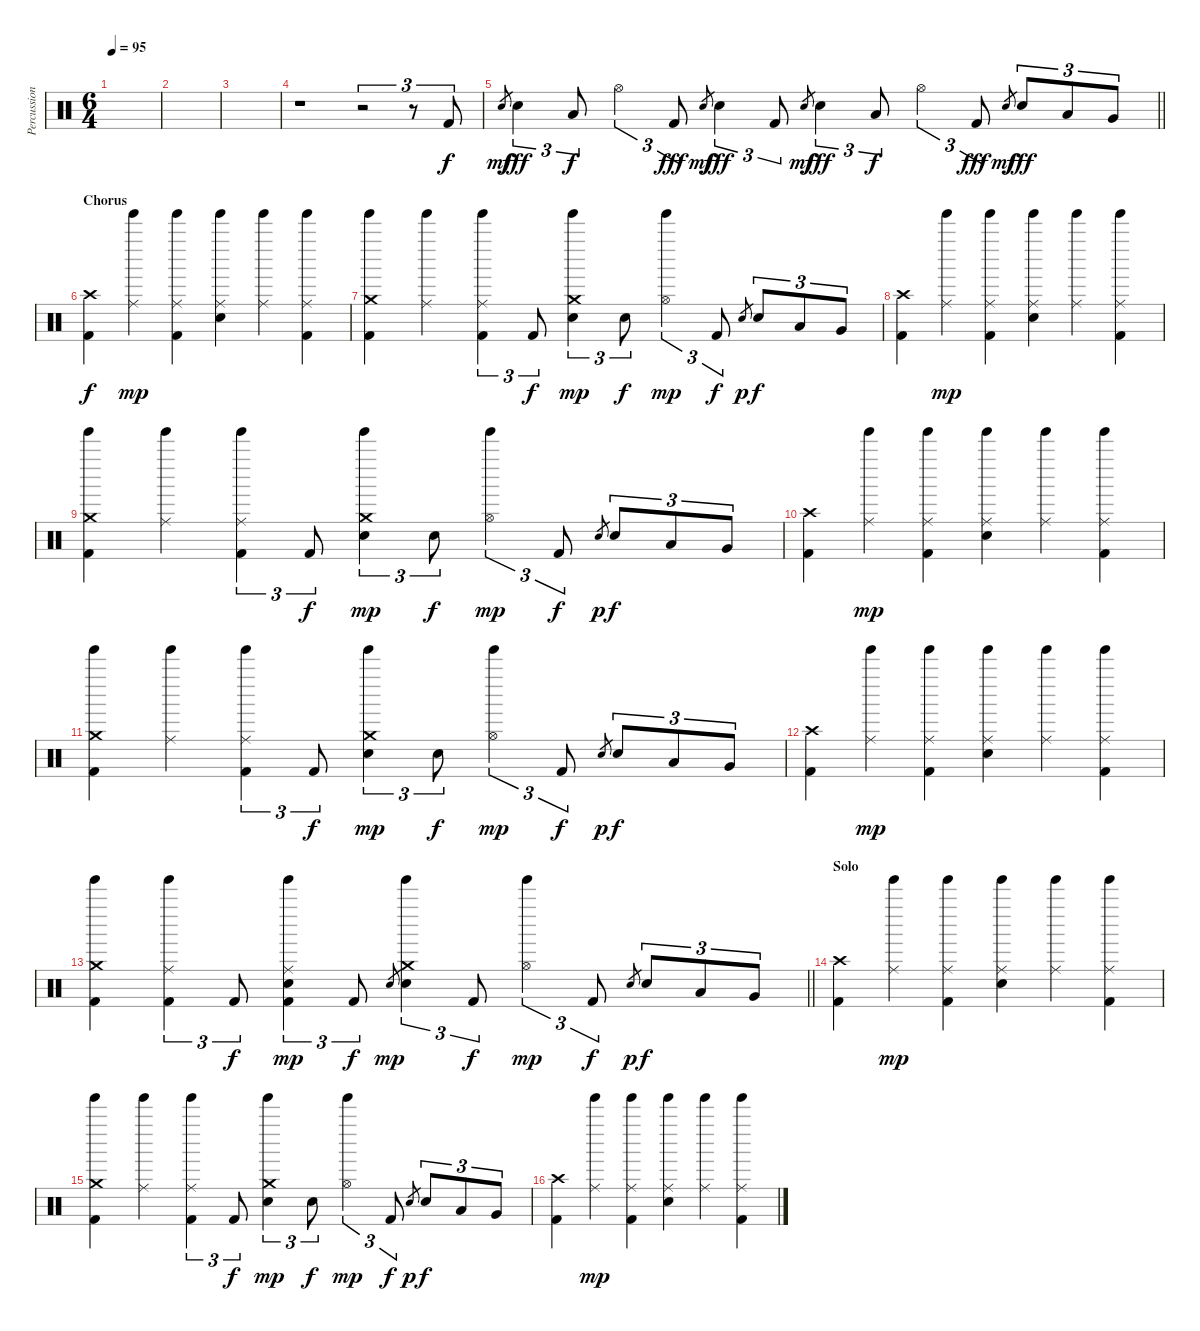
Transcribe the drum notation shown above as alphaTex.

\track ("Percussion" "Percussion") {instrument percussion}
\staff {score}
\articulation defaults
\ts (6 4)
\tempo 95
\clef neutral
\ks c
|
|
|
r.1 r.2{tu (3 2)} r.8{tu (3 2)} "Kick (hit) 2".8{tu (3 2)} |
\barLineRight lightlight "Snare (hit) 2".8{gr dy mf} "Snare (hit) 2".4{tu (3 2) dy fff} "Low Tom (hit)".8{tu (3 2) dy f} "Hi-Hat (open)".4{tu (3 2)} "Kick (hit) 2".8{tu (3 2) dy fff} "Snare (hit) 2".8{gr dy mf} "Snare (hit) 2".4{tu (3 2) dy fff} "Kick (hit) 2".8{tu (3 2)} "Snare (hit) 2".8{gr dy mf} "Snare (hit) 2".4{tu (3 2) dy fff} "Low Tom (hit)".8{tu (3 2) dy f} "Hi-Hat (open)".4{tu (3 2)} "Kick (hit) 2".8{tu (3 2) dy fff} "Snare (hit) 2".8{gr dy mf} "Snare (hit) 2".8{tu (3 2) dy fff} "Low Tom (hit)".8{tu (3 2)} "Very Low Tom (hit)".8{tu (3 2)}
|
\section ("" "Chorus")
("Crash high (hit)" "Kick (hit) 2").4{dy f} ("Ride (middle)" "Tinkle Bell (hit)").4{dy mp} ("Ride (middle)" "Tinkle Bell (hit)" "Kick (hit) 2").4 ("Ride (middle)" "Snare (hit) 2" "Tinkle Bell (hit)").4 ("Ride (middle)" "Tinkle Bell (hit)").4 ("Ride (middle)" "Tinkle Bell (hit)" "Kick (hit) 2").4 |
("Crash medium (hit)" "Kick (hit) 2" "Tinkle Bell (hit)").4 ("Ride (middle)" "Tinkle Bell (hit)").4 ("Ride (middle)" "Tinkle Bell (hit)" "Kick (hit) 2").4{tu (3 2)} "Kick (hit) 2".8{tu (3 2) dy f} ("Snare (hit) 2" "Crash medium (hit)" "Tinkle Bell (hit)").4{tu (3 2) dy mp} "Snare (hit) 2".8{tu (3 2) dy f} ("Hi-Hat (open)" "Tinkle Bell (hit)").4{tu (3 2) dy mp} "Kick (hit) 2".8{tu (3 2) dy f} "Snare (hit) 2".8{gr dy p} "Snare (hit) 2".8{tu (3 2) dy f} "Low Tom (hit)".8{tu (3 2)} "Very Low Tom (hit)".8{tu (3 2)} |
("Crash high (hit)" "Kick (hit) 2").4 ("Ride (middle)" "Tinkle Bell (hit)").4{dy mp} ("Ride (middle)" "Tinkle Bell (hit)" "Kick (hit) 2").4 ("Ride (middle)" "Snare (hit) 2" "Tinkle Bell (hit)").4 ("Ride (middle)" "Tinkle Bell (hit)").4 ("Ride (middle)" "Tinkle Bell (hit)" "Kick (hit) 2").4 |
("Crash medium (hit)" "Kick (hit) 2" "Tinkle Bell (hit)").4 ("Ride (middle)" "Tinkle Bell (hit)").4 ("Ride (middle)" "Tinkle Bell (hit)" "Kick (hit) 2").4{tu (3 2)} "Kick (hit) 2".8{tu (3 2) dy f} ("Snare (hit) 2" "Crash medium (hit)" "Tinkle Bell (hit)").4{tu (3 2) dy mp} "Snare (hit) 2".8{tu (3 2) dy f} ("Hi-Hat (open)" "Tinkle Bell (hit)").4{tu (3 2) dy mp} "Kick (hit) 2".8{tu (3 2) dy f} "Snare (hit) 2".8{gr dy p} "Snare (hit) 2".8{tu (3 2) dy f} "Low Tom (hit)".8{tu (3 2)} "Very Low Tom (hit)".8{tu (3 2)} |
("Crash high (hit)" "Kick (hit) 2").4 ("Ride (middle)" "Tinkle Bell (hit)").4{dy mp} ("Ride (middle)" "Tinkle Bell (hit)" "Kick (hit) 2").4 ("Ride (middle)" "Snare (hit) 2" "Tinkle Bell (hit)").4 ("Ride (middle)" "Tinkle Bell (hit)").4 ("Ride (middle)" "Tinkle Bell (hit)" "Kick (hit) 2").4 |
("Crash medium (hit)" "Kick (hit) 2" "Tinkle Bell (hit)").4 ("Ride (middle)" "Tinkle Bell (hit)").4 ("Ride (middle)" "Tinkle Bell (hit)" "Kick (hit) 2").4{tu (3 2)} "Kick (hit) 2".8{tu (3 2) dy f} ("Snare (hit) 2" "Crash medium (hit)" "Tinkle Bell (hit)").4{tu (3 2) dy mp} "Snare (hit) 2".8{tu (3 2) dy f} ("Hi-Hat (open)" "Tinkle Bell (hit)").4{tu (3 2) dy mp} "Kick (hit) 2".8{tu (3 2) dy f} "Snare (hit) 2".8{gr dy p} "Snare (hit) 2".8{tu (3 2) dy f} "Low Tom (hit)".8{tu (3 2)} "Very Low Tom (hit)".8{tu (3 2)} |
("Crash high (hit)" "Kick (hit) 2").4 ("Ride (middle)" "Tinkle Bell (hit)").4{dy mp} ("Ride (middle)" "Tinkle Bell (hit)" "Kick (hit) 2").4 ("Ride (middle)" "Snare (hit) 2" "Tinkle Bell (hit)").4 ("Ride (middle)" "Tinkle Bell (hit)").4 ("Ride (middle)" "Tinkle Bell (hit)" "Kick (hit) 2").4 |
\barLineRight lightlight
("Crash medium (hit)" "Kick (hit) 2" "Tinkle Bell (hit)").4 ("Ride (middle)" "Tinkle Bell (hit)" "Kick (hit) 2").4{tu (3 2)} "Kick (hit) 2".8{tu (3 2) dy f} ("Ride (middle)" "Tinkle Bell (hit)" "Kick (hit) 2" "Snare (hit) 2").4{tu (3 2) dy mp} "Kick (hit) 2".8{tu (3 2) dy f} "Snare (hit) 2".8{gr dy mp} ("Snare (hit) 2" "Crash medium (hit)" "Tinkle Bell (hit)").4{tu (3 2)} "Kick (hit) 2".8{tu (3 2) dy f} ("Hi-Hat (open)" "Tinkle Bell (hit)").4{tu (3 2) dy mp} "Kick (hit) 2".8{tu (3 2) dy f} "Snare (hit) 2".8{gr dy p} "Snare (hit) 2".8{tu (3 2) dy f} "Low Tom (hit)".8{tu (3 2)} "Very Low Tom (hit)".8{tu (3 2)} |
\section ("" "Solo")
("Crash high (hit)" "Kick (hit) 2").4 ("Ride (middle)" "Tinkle Bell (hit)").4{dy mp} ("Ride (middle)" "Tinkle Bell (hit)" "Kick (hit) 2").4 ("Ride (middle)" "Snare (hit) 2" "Tinkle Bell (hit)").4 ("Ride (middle)" "Tinkle Bell (hit)").4 ("Ride (middle)" "Tinkle Bell (hit)" "Kick (hit) 2").4 |
("Crash medium (hit)" "Kick (hit) 2" "Tinkle Bell (hit)").4 ("Ride (middle)" "Tinkle Bell (hit)").4 ("Ride (middle)" "Tinkle Bell (hit)" "Kick (hit) 2").4{tu (3 2)} "Kick (hit) 2".8{tu (3 2) dy f} ("Snare (hit) 2" "Crash medium (hit)" "Tinkle Bell (hit)").4{tu (3 2) dy mp} "Snare (hit) 2".8{tu (3 2) dy f} ("Hi-Hat (open)" "Tinkle Bell (hit)").4{tu (3 2) dy mp} "Kick (hit) 2".8{tu (3 2) dy f} "Snare (hit) 2".8{gr dy p} "Snare (hit) 2".8{tu (3 2) dy f} "Low Tom (hit)".8{tu (3 2)} "Very Low Tom (hit)".8{tu (3 2)} |
("Crash high (hit)" "Kick (hit) 2").4 ("Ride (middle)" "Tinkle Bell (hit)").4{dy mp} ("Ride (middle)" "Tinkle Bell (hit)" "Kick (hit) 2").4 ("Ride (middle)" "Snare (hit) 2" "Tinkle Bell (hit)").4 ("Ride (middle)" "Tinkle Bell (hit)").4 ("Ride (middle)" "Tinkle Bell (hit)" "Kick (hit) 2").4
